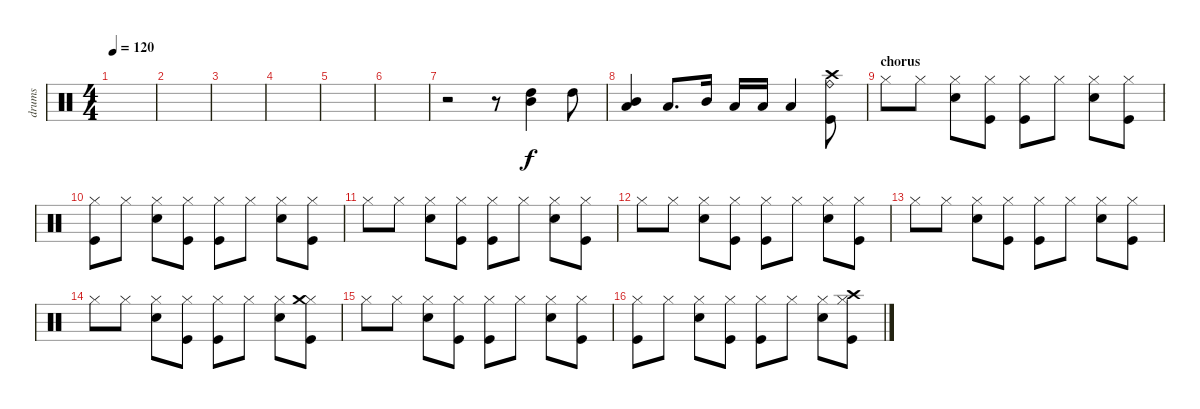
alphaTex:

\track ("drums" "drums") {instrument percussion}
\staff {score}
\articulation defaults
\ts (4 4)
\tempo 120
\clef neutral
\ks c
|
|
|
|
|
|
r.2 r.8 ("High Tom (hit)" "Mid Tom (hit)").4 "High Tom (hit)".8 |
("Mid Tom (hit)" "Low Tom (hit)").4 "Low Tom (hit)".8{d} "Mid Tom (hit)".16 "Low Tom (hit)".16 "Low Floor Tom (hit)".16 "Low Floor Tom (hit)".4 ("Kick (hit)" "Ride (bell)" "Crash high (hit)").8 |
\section ("" "chorus")
"Hi-Hat (closed)".8 "Hi-Hat (closed)".8 ("Electric Snare (hit)" "Hi-Hat (closed)").8 ("Kick (hit)" "Hi-Hat (closed)").8 ("Kick (hit)" "Hi-Hat (closed)").8 "Hi-Hat (closed)".8 ("Electric Snare (hit)" "Hi-Hat (closed)").8 ("Kick (hit)" "Hi-Hat (closed)").8 |
("Kick (hit)" "Hi-Hat (closed)").8 "Hi-Hat (closed)".8 ("Electric Snare (hit)" "Hi-Hat (closed)").8 ("Kick (hit)" "Hi-Hat (closed)").8 ("Kick (hit)" "Hi-Hat (closed)").8 "Hi-Hat (closed)".8 ("Electric Snare (hit)" "Hi-Hat (closed)").8 ("Kick (hit)" "Hi-Hat (closed)").8 |
"Hi-Hat (closed)".8 "Hi-Hat (closed)".8 ("Electric Snare (hit)" "Hi-Hat (closed)").8 ("Kick (hit)" "Hi-Hat (closed)").8 ("Kick (hit)" "Hi-Hat (closed)").8 "Hi-Hat (closed)".8 ("Electric Snare (hit)" "Hi-Hat (closed)").8 ("Kick (hit)" "Hi-Hat (closed)").8 |
"Hi-Hat (closed)".8 "Hi-Hat (closed)".8 ("Electric Snare (hit)" "Hi-Hat (closed)").8 ("Kick (hit)" "Hi-Hat (closed)").8 ("Kick (hit)" "Hi-Hat (closed)").8 "Hi-Hat (closed)".8 ("Electric Snare (hit)" "Hi-Hat (closed)").8 ("Kick (hit)" "Hi-Hat (closed)").8 |
"Hi-Hat (closed)".8 "Hi-Hat (closed)".8 ("Electric Snare (hit)" "Hi-Hat (closed)").8 ("Kick (hit)" "Hi-Hat (closed)").8 ("Kick (hit)" "Hi-Hat (closed)").8 "Hi-Hat (closed)".8 ("Electric Snare (hit)" "Hi-Hat (closed)").8 ("Kick (hit)" "Hi-Hat (closed)").8 |
"Hi-Hat (closed)".8 "Hi-Hat (closed)".8 ("Electric Snare (hit)" "Hi-Hat (closed)").8 ("Kick (hit)" "Hi-Hat (closed)").8 ("Kick (hit)" "Hi-Hat (closed)").8 "Hi-Hat (closed)".8 ("Electric Snare (hit)" "Hi-Hat (closed)").8 ("Kick (hit)" "Hi-Hat (closed)" "Crash medium (hit)").8 |
"Hi-Hat (closed)".8 "Hi-Hat (closed)".8 ("Electric Snare (hit)" "Hi-Hat (closed)").8 ("Kick (hit)" "Hi-Hat (closed)").8 ("Kick (hit)" "Hi-Hat (closed)").8 "Hi-Hat (closed)".8 ("Electric Snare (hit)" "Hi-Hat (closed)").8 ("Kick (hit)" "Hi-Hat (closed)").8 |
("Kick (hit)" "Hi-Hat (closed)").8 "Hi-Hat (closed)".8 ("Electric Snare (hit)" "Hi-Hat (closed)").8 ("Kick (hit)" "Hi-Hat (closed)").8 ("Kick (hit)" "Hi-Hat (closed)").8 "Hi-Hat (closed)".8 ("Electric Snare (hit)" "Hi-Hat (closed)").8 ("Kick (hit)" "Hi-Hat (closed)" "Crash high (hit)").8
